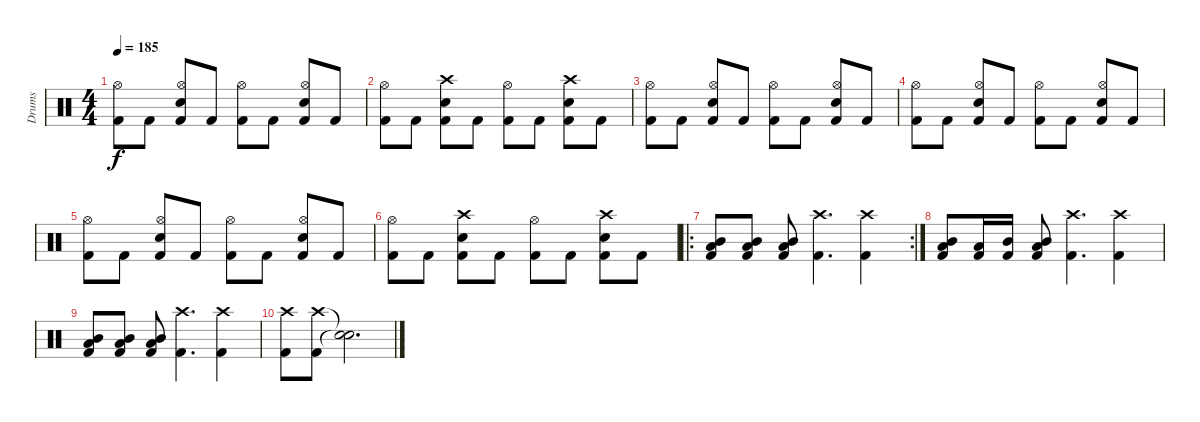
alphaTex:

\track ("Drums" "Drums") {instrument percussion}
\staff {score}
\articulation defaults
\ts (4 4)
\tempo 185
\clef neutral
\ks c
("Kick (hit) 2" "Hi-Hat (open)").8{dy f} "Kick (hit) 2".8 ("Snare (hit) 2" "Hi-Hat (open)" "Kick (hit) 2").8 "Kick (hit) 2".8 ("Hi-Hat (open)" "Kick (hit) 2").8 "Kick (hit) 2".8 ("Snare (hit) 2" "Hi-Hat (open)" "Kick (hit) 2").8 "Kick (hit) 2".8 |
("Kick (hit) 2" "Hi-Hat (open)").8 "Kick (hit) 2".8 ("Snare (hit) 2" "Crash high (hit)" "Kick (hit) 2").8 "Kick (hit) 2".8 ("Hi-Hat (open)" "Kick (hit) 2").8 "Kick (hit) 2".8 ("Snare (hit) 2" "Crash high (hit)" "Kick (hit) 2").8 "Kick (hit) 2".8 |
("Kick (hit) 2" "Hi-Hat (open)").8 "Kick (hit) 2".8 ("Snare (hit) 2" "Hi-Hat (open)" "Kick (hit) 2").8 "Kick (hit) 2".8 ("Hi-Hat (open)" "Kick (hit) 2").8 "Kick (hit) 2".8 ("Snare (hit) 2" "Hi-Hat (open)" "Kick (hit) 2").8 "Kick (hit) 2".8 |
("Kick (hit) 2" "Hi-Hat (open)").8 "Kick (hit) 2".8 ("Snare (hit) 2" "Hi-Hat (open)" "Kick (hit) 2").8 "Kick (hit) 2".8 ("Hi-Hat (open)" "Kick (hit) 2").8 "Kick (hit) 2".8 ("Snare (hit) 2" "Hi-Hat (open)" "Kick (hit) 2").8 "Kick (hit) 2".8 |
("Kick (hit) 2" "Hi-Hat (open)").8 "Kick (hit) 2".8 ("Snare (hit) 2" "Hi-Hat (open)" "Kick (hit) 2").8 "Kick (hit) 2".8 ("Hi-Hat (open)" "Kick (hit) 2").8 "Kick (hit) 2".8 ("Snare (hit) 2" "Hi-Hat (open)" "Kick (hit) 2").8 "Kick (hit) 2".8 |
("Kick (hit) 2" "Hi-Hat (open)").8 "Kick (hit) 2".8 ("Snare (hit) 2" "Crash high (hit)" "Kick (hit) 2").8 "Kick (hit) 2".8 ("Hi-Hat (open)" "Kick (hit) 2").8 "Kick (hit) 2".8 ("Snare (hit) 2" "Crash high (hit)" "Kick (hit) 2").8 "Kick (hit) 2".8 |
\ro
\rc 2
("Mid Tom (hit)" "Low Tom (hit)" "Kick (hit) 2").8 ("Mid Tom (hit)" "Low Tom (hit)" "Kick (hit) 2").8 ("Mid Tom (hit)" "Low Tom (hit)" "Kick (hit) 2").8 ("Crash high (hit)" "Kick (hit) 2").4{d} ("Crash high (hit)" "Kick (hit) 2").4 |
("Mid Tom (hit)" "Low Tom (hit)" "Kick (hit) 2").8 ("Low Tom (hit)" "Kick (hit) 2").16 ("Mid Tom (hit)" "Kick (hit) 2").16 ("Mid Tom (hit)" "Low Tom (hit)" "Kick (hit) 2").8 ("Crash high (hit)" "Kick (hit) 2").4{d} ("Crash high (hit)" "Kick (hit) 2").4 |
("Mid Tom (hit)" "Low Tom (hit)" "Kick (hit) 2").8 ("Mid Tom (hit)" "Low Tom (hit)" "Kick (hit) 2").8 ("Mid Tom (hit)" "Low Tom (hit)" "Kick (hit) 2").8 ("Crash high (hit)" "Kick (hit) 2").4{d} ("Crash high (hit)" "Kick (hit) 2").4 |
("Crash high (hit)" "Kick (hit) 2").8 ("Crash high (hit)" "Kick (hit) 2").8 ("Snare (hit)"{t} "Snare (hit)"{t}).2{d}
